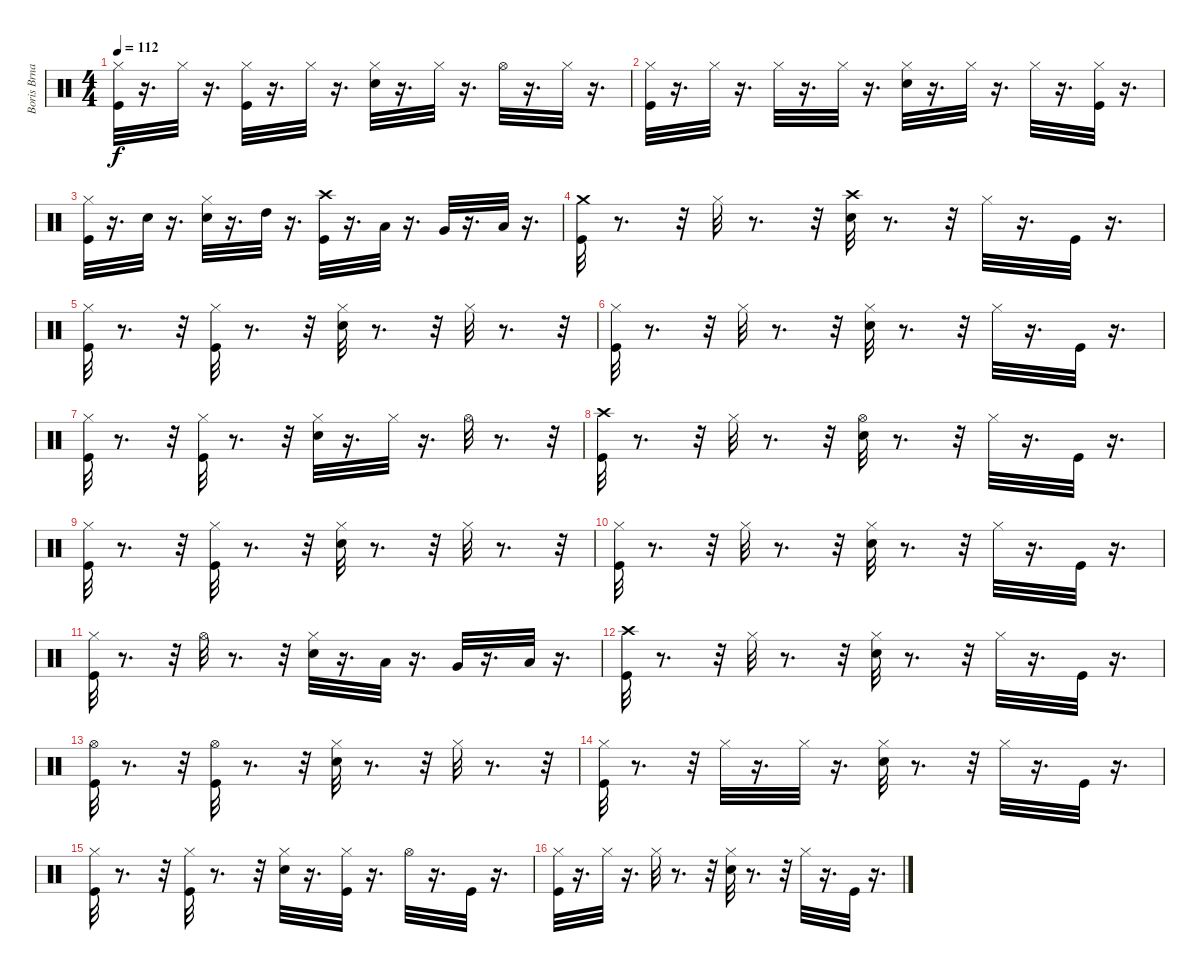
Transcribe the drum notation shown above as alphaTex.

\track ("Boris Brna (Drums)" "Boris Brna") {instrument percussion}
\staff {score}
\articulation defaults
\ts (4 4)
\tempo 112
\clef neutral
\ks c
("Kick (hit)" "Hi-Hat (closed)").32{dy f} r.16{d} "Hi-Hat (closed)".32 r.16{d} ("Kick (hit)" "Hi-Hat (closed)").32 r.16{d} "Hi-Hat (closed)".32 r.16{d} ("Snare (hit) 2" "Hi-Hat (closed)").32 r.16{d} "Hi-Hat (closed)".32 r.16{d} "Hi-Hat (open)".32 r.16{d} "Hi-Hat (closed)".32 r.16{d} |
("Kick (hit)" "Hi-Hat (closed)").32 r.16{d} "Hi-Hat (closed)".32 r.16{d} "Hi-Hat (closed)".32 r.16{d} "Hi-Hat (closed)".32 r.16{d} ("Hi-Hat (closed)" "Snare (hit) 2").32 r.16{d} "Hi-Hat (closed)".32 r.16{d} "Hi-Hat (closed)".32 r.16{d} ("Kick (hit)" "Hi-Hat (closed)").32 r.16{d} |
("Kick (hit)" "Hi-Hat (closed)").32 r.16{d} "Snare (hit) 2".32 r.16{d} ("Snare (hit) 2" "Hi-Hat (closed)").32 r.16{d} "High Tom (hit)".32 r.16{d} ("Kick (hit)" "Crash high (hit)").32 r.16{d} "Low Tom (hit)".32 r.16{d} "Very Low Tom (hit)".32 r.16{d} "Low Floor Tom (hit)".32 r.16{d} |
("Kick (hit)" "Crash medium (hit)").32 r.8{d} r.32 "Hi-Hat (closed)".32 r.8{d} r.32 ("Crash high (hit)" "Snare (hit) 2").32 r.8{d} r.32 "Hi-Hat (closed)".32 r.16{d} "Kick (hit)".32 r.16{d} |
("Kick (hit)" "Hi-Hat (closed)").32 r.8{d} r.32 ("Kick (hit)" "Hi-Hat (closed)").32 r.8{d} r.32 ("Snare (hit) 2" "Hi-Hat (closed)").32 r.8{d} r.32 "Hi-Hat (closed)".32 r.8{d} r.32 |
("Kick (hit)" "Hi-Hat (closed)").32 r.8{d} r.32 "Hi-Hat (closed)".32 r.8{d} r.32 ("Hi-Hat (closed)" "Snare (hit) 2").32 r.8{d} r.32 "Hi-Hat (closed)".32 r.16{d} "Kick (hit)".32 r.16{d} |
("Kick (hit)" "Hi-Hat (closed)").32 r.8{d} r.32 ("Kick (hit)" "Hi-Hat (closed)").32 r.8{d} r.32 ("Snare (hit) 2" "Hi-Hat (closed)").32 r.16{d} "Hi-Hat (closed)".32 r.16{d} "Hi-Hat (open)".32 r.8{d} r.32 |
("Kick (hit)" "Crash high (hit)").32 r.8{d} r.32 "Hi-Hat (closed)".32 r.8{d} r.32 ("Hi-Hat (open)" "Snare (hit) 2").32 r.8{d} r.32 "Hi-Hat (closed)".32 r.16{d} "Kick (hit)".32 r.16{d} |
("Kick (hit)" "Hi-Hat (closed)").32 r.8{d} r.32 ("Kick (hit)" "Hi-Hat (closed)").32 r.8{d} r.32 ("Snare (hit) 2" "Hi-Hat (closed)").32 r.8{d} r.32 "Hi-Hat (closed)".32 r.8{d} r.32 |
("Kick (hit)" "Hi-Hat (closed)").32 r.8{d} r.32 "Hi-Hat (closed)".32 r.8{d} r.32 ("Hi-Hat (closed)" "Snare (hit) 2").32 r.8{d} r.32 "Hi-Hat (closed)".32 r.16{d} "Kick (hit)".32 r.16{d} |
("Kick (hit)" "Hi-Hat (closed)").32 r.8{d} r.32 "Hi-Hat (open)".32 r.8{d} r.32 ("Snare (hit) 2" "Hi-Hat (closed)").32 r.16{d} "Low Tom (hit)".32 r.16{d} "Very Low Tom (hit)".32 r.16{d} "Low Floor Tom (hit)".32 r.16{d} |
("Kick (hit)" "Crash high (hit)").32 r.8{d} r.32 "Hi-Hat (closed)".32 r.8{d} r.32 ("Hi-Hat (closed)" "Snare (hit) 2").32 r.8{d} r.32 "Hi-Hat (closed)".32 r.16{d} "Kick (hit)".32 r.16{d} |
("Kick (hit)" "Hi-Hat (open)").32 r.8{d} r.32 ("Kick (hit)" "Hi-Hat (open)").32 r.8{d} r.32 ("Snare (hit) 2" "Hi-Hat (closed)").32 r.8{d} r.32 "Hi-Hat (closed)".32 r.8{d} r.32 |
("Kick (hit)" "Hi-Hat (closed)").32 r.8{d} r.32 "Hi-Hat (closed)".32 r.16{d} "Hi-Hat (closed)".32 r.16{d} ("Hi-Hat (closed)" "Snare (hit) 2").32 r.8{d} r.32 "Hi-Hat (closed)".32 r.16{d} "Kick (hit)".32 r.16{d} |
("Kick (hit)" "Hi-Hat (closed)").32 r.8{d} r.32 ("Kick (hit)" "Hi-Hat (closed)").32 r.8{d} r.32 ("Snare (hit) 2" "Hi-Hat (closed)").32 r.16{d} ("Hi-Hat (closed)" "Kick (hit)").32 r.16{d} "Hi-Hat (open)".32 r.16{d} "Kick (hit)".32 r.16{d} |
("Kick (hit)" "Hi-Hat (closed)").32 r.16{d} "Hi-Hat (closed)".32 r.16{d} "Hi-Hat (closed)".32 r.8{d} r.32 ("Hi-Hat (closed)" "Snare (hit) 2").32 r.8{d} r.32 "Hi-Hat (closed)".32 r.16{d} "Kick (hit)".32 r.16{d}
